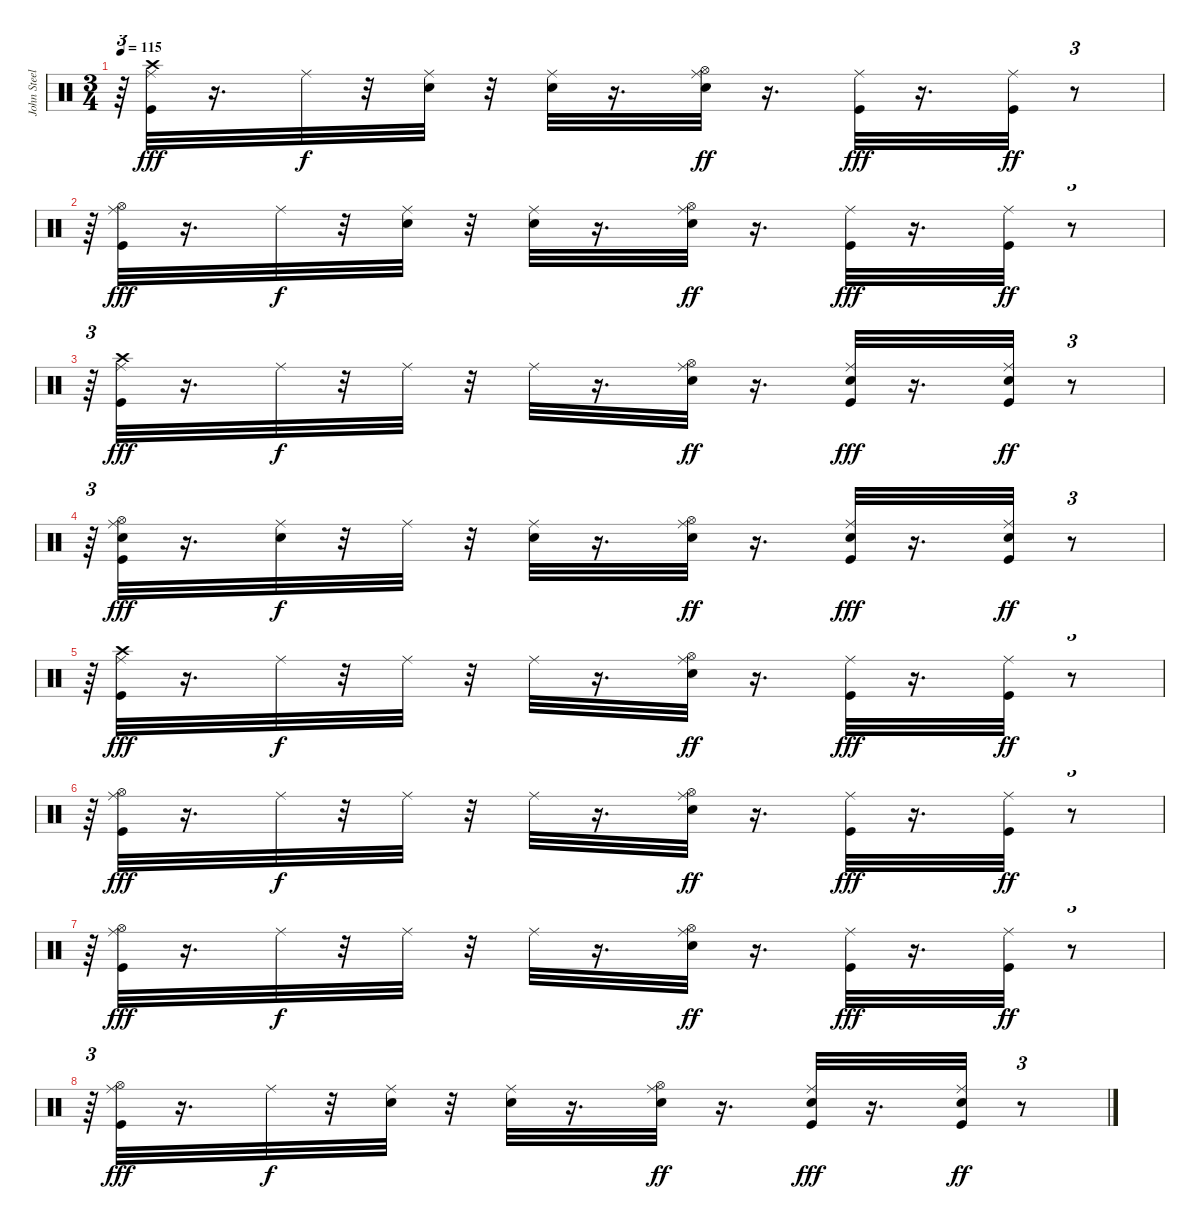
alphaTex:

\track ("John Steel" "John Steel") {instrument percussion}
\staff {score}
\articulation defaults
\ts (3 4)
\tempo 115
\clef neutral
\ks c
r.64{tu (3 2) dy ff} ("Kick (hit)" "Crash high (hit)" "Ride (middle)").32{dy fff} r.16{d} "Ride (middle)".32{dy f} r.32 ("Snare (hit) 2" "Ride (middle)").32 r.32 ("Snare (hit) 2" "Ride (middle)").32 r.16{d} ("Snare (hit) 2" "Hi-Hat (open)" "Ride (middle)").32{dy ff} r.16{d} ("Kick (hit)" "Ride (middle)").32{dy fff} r.16{d} ("Kick (hit)" "Ride (middle)").32{dy ff} r.8{tu (3 2)} |
r.64{tu (3 2)} ("Kick (hit)" "Hi-Hat (open)" "Ride (middle)").32{dy fff} r.16{d} "Ride (middle)".32{dy f} r.32 ("Snare (hit) 2" "Ride (middle)").32 r.32 ("Snare (hit) 2" "Ride (middle)").32 r.16{d} ("Snare (hit) 2" "Hi-Hat (open)" "Ride (middle)").32{dy ff} r.16{d} ("Kick (hit)" "Ride (middle)").32{dy fff} r.16{d} ("Kick (hit)" "Ride (middle)").32{dy ff} r.8{tu (3 2)} |
r.64{tu (3 2)} ("Kick (hit)" "Crash high (hit)" "Ride (middle)").32{dy fff} r.16{d} "Ride (middle)".32{dy f} r.32 "Ride (middle)".32 r.32 "Ride (middle)".32 r.16{d} ("Snare (hit) 2" "Hi-Hat (open)" "Ride (middle)").32{dy ff} r.16{d} ("Kick (hit)" "Snare (hit) 2" "Ride (middle)").32{dy fff} r.16{d} ("Kick (hit)" "Snare (hit) 2" "Ride (middle)").32{dy ff} r.8{tu (3 2)} |
r.64{tu (3 2)} ("Kick (hit)" "Snare (hit) 2" "Hi-Hat (open)" "Ride (middle)").32{dy fff} r.16{d} ("Snare (hit) 2" "Ride (middle)").32{dy f} r.32 "Ride (middle)".32 r.32 ("Snare (hit) 2" "Ride (middle)").32 r.16{d} ("Snare (hit) 2" "Hi-Hat (open)" "Ride (middle)").32{dy ff} r.16{d} ("Kick (hit)" "Snare (hit) 2" "Ride (middle)").32{dy fff} r.16{d} ("Kick (hit)" "Snare (hit) 2" "Ride (middle)").32{dy ff} r.8{tu (3 2)} |
r.64{tu (3 2)} ("Kick (hit)" "Crash high (hit)" "Ride (middle)").32{dy fff} r.16{d} "Ride (middle)".32{dy f} r.32 "Ride (middle)".32 r.32 "Ride (middle)".32 r.16{d} ("Snare (hit) 2" "Hi-Hat (open)" "Ride (middle)").32{dy ff} r.16{d} ("Kick (hit)" "Ride (middle)").32{dy fff} r.16{d} ("Kick (hit)" "Ride (middle)").32{dy ff} r.8{tu (3 2)} |
r.64{tu (3 2)} ("Kick (hit)" "Hi-Hat (open)" "Ride (middle)").32{dy fff} r.16{d} "Ride (middle)".32{dy f} r.32 "Ride (middle)".32 r.32 "Ride (middle)".32 r.16{d} ("Snare (hit) 2" "Hi-Hat (open)" "Ride (middle)").32{dy ff} r.16{d} ("Kick (hit)" "Ride (middle)").32{dy fff} r.16{d} ("Kick (hit)" "Ride (middle)").32{dy ff} r.8{tu (3 2)} |
r.64{tu (3 2)} ("Kick (hit)" "Hi-Hat (open)" "Ride (middle)").32{dy fff} r.16{d} "Ride (middle)".32{dy f} r.32 "Ride (middle)".32 r.32 "Ride (middle)".32 r.16{d} ("Snare (hit) 2" "Hi-Hat (open)" "Ride (middle)").32{dy ff} r.16{d} ("Kick (hit)" "Ride (middle)").32{dy fff} r.16{d} ("Kick (hit)" "Ride (middle)").32{dy ff} r.8{tu (3 2)} |
r.64{tu (3 2)} ("Kick (hit)" "Hi-Hat (open)" "Ride (middle)").32{dy fff} r.16{d} "Ride (middle)".32{dy f} r.32 ("Snare (hit) 2" "Ride (middle)").32 r.32 ("Snare (hit) 2" "Ride (middle)").32 r.16{d} ("Snare (hit) 2" "Hi-Hat (open)" "Ride (middle)").32{dy ff} r.16{d} ("Kick (hit)" "Snare (hit) 2" "Ride (middle)").32{dy fff} r.16{d} ("Kick (hit)" "Snare (hit) 2" "Ride (middle)").32{dy ff} r.8{tu (3 2)}
